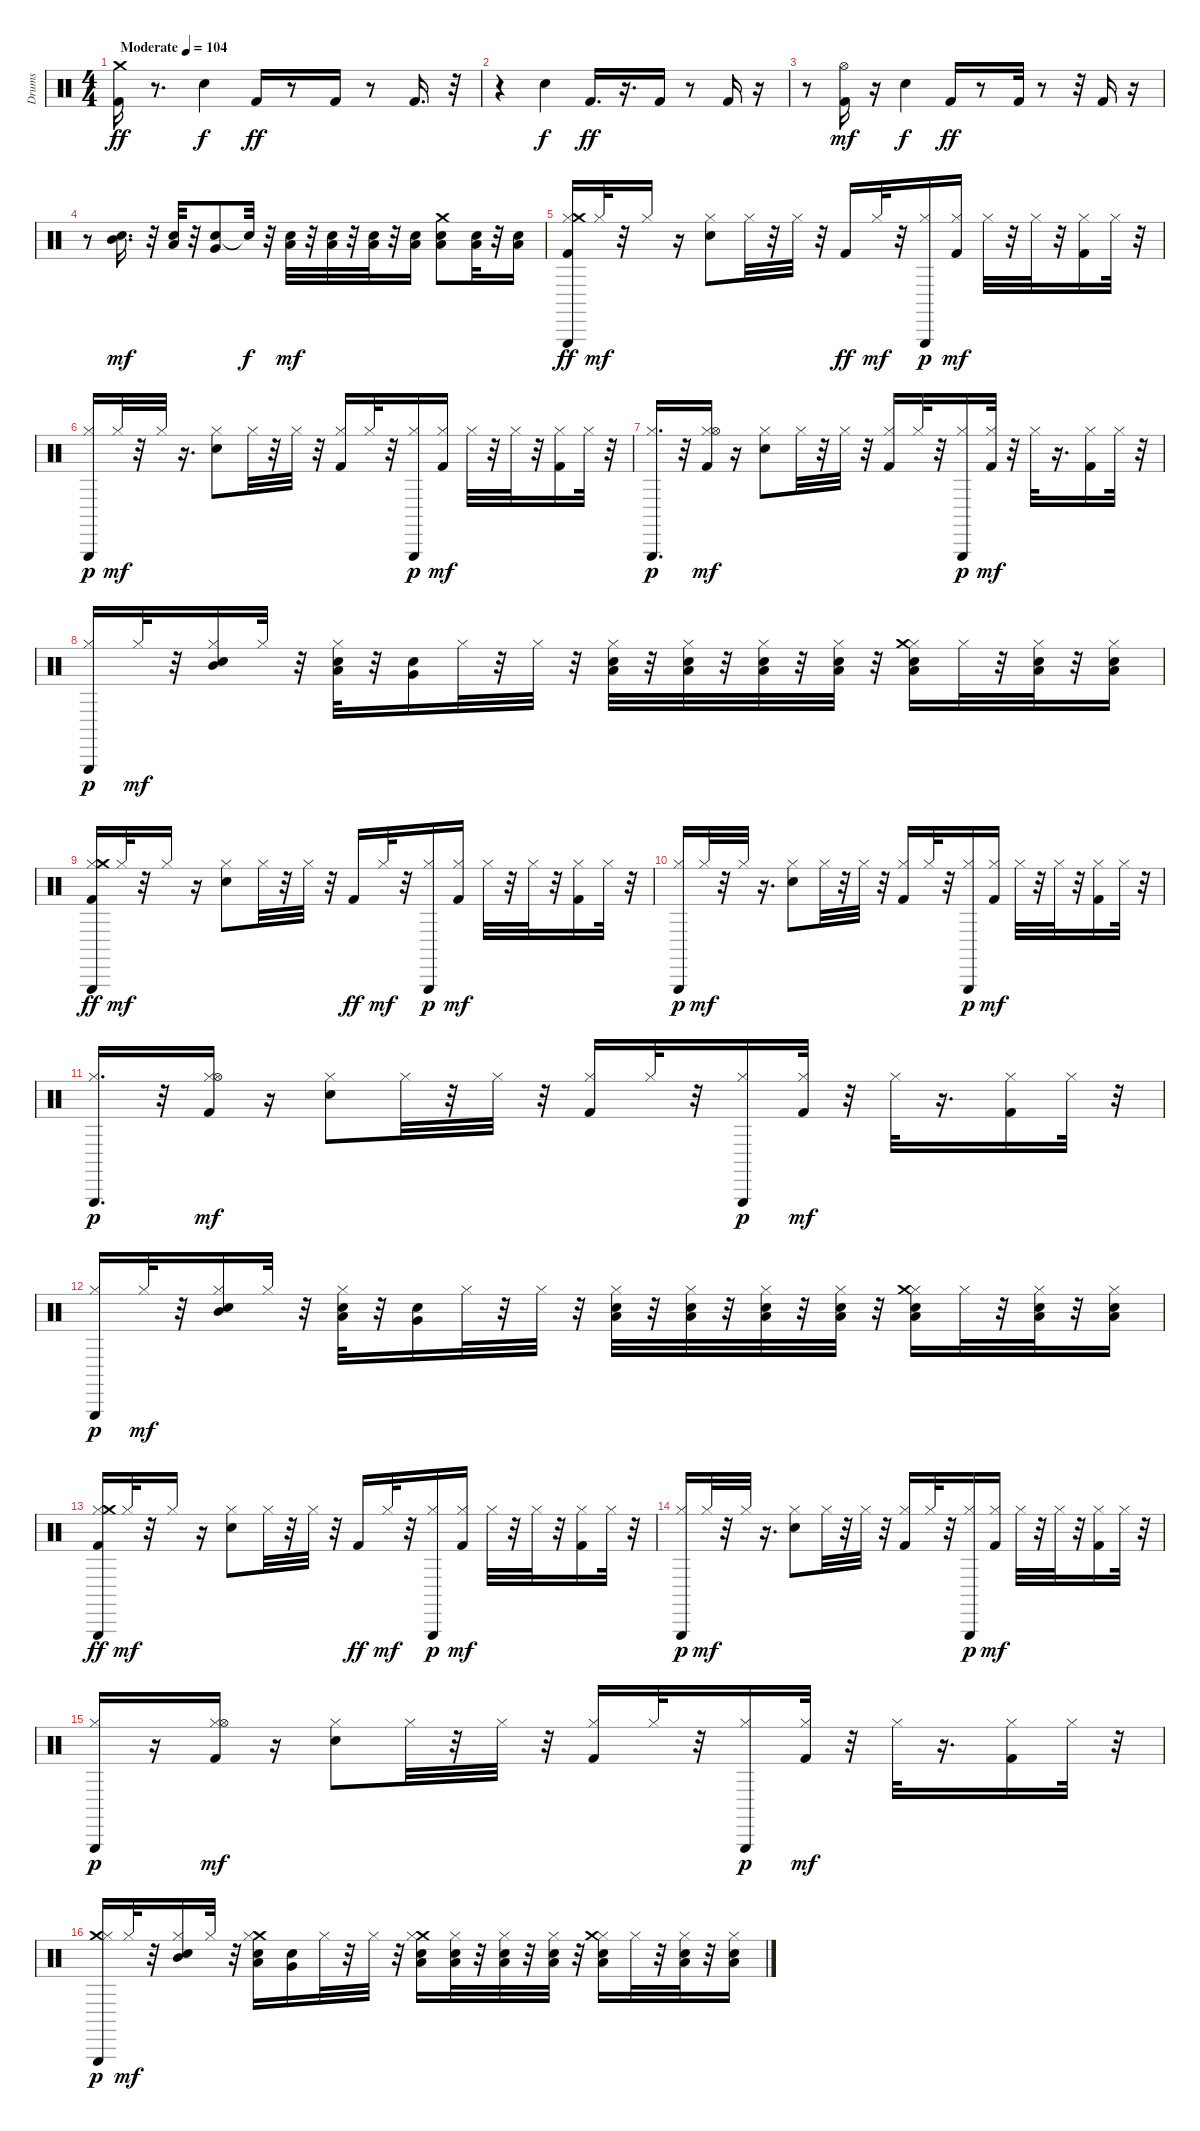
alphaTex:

\track ("Drums" "Drums") {instrument percussion}
\staff {score}
\articulation defaults
\ts (4 4)
\tempo (104 "Moderate")
\clef neutral
\ks c
("Kick (hit) 2" "Crash medium (hit)").16{dy ff} r.8{d} "Snare (hit) 2".4{dy f} "Kick (hit) 2".16{dy ff} r.8 "Kick (hit) 2".16 r.8 "Kick (hit) 2".16{d} r.32 |
r.4 "Snare (hit) 2".4{dy f} "Kick (hit) 2".16{d dy ff} r.16{d} "Kick (hit) 2".16 r.8 "Kick (hit) 2".16 r.16 |
r.8 ("Kick (hit) 2" "Hi-Hat (open)").16{dy mf} r.16 "Snare (hit) 2".4{dy f} "Kick (hit) 2".16{dy ff} r.8 "Kick (hit) 2".32 r.8 r.32 "Kick (hit) 2".16 r.16 |
r.8 ("Snare (hit) 2" "Mid Tom (hit)").16{d dy mf} r.32 ("Snare (hit) 2" "Low Tom (hit)").32 r.32 ("Snare (hit) 2" "Very Low Tom (hit)").8 "Snare (hit)"{t}.32{dy f} r.32 ("Snare (hit) 2" "Low Floor Tom (hit)").32{dy mf} r.32 ("Snare (hit) 2" "Low Floor Tom (hit)").32 r.32 ("Snare (hit) 2" "Low Floor Tom (hit)").32 r.32 ("Snare (hit) 2" "Low Floor Tom (hit)").16 ("Snare (hit) 2" "Low Floor Tom (hit)" "Crash medium (hit)").8 ("Snare (hit) 2" "Low Floor Tom (hit)").32 r.32 ("Snare (hit) 2" "Low Floor Tom (hit)").16 |
("Kick (hit) 2" "Hi-Hat (closed)" "Triangle (hit)" "Crash medium (hit)").16{dy ff} "Hi-Hat (closed)".32{dy mf} r.32 "Hi-Hat (closed)".16 r.16 ("Hi-Hat (closed)" "Snare (hit) 2").8 "Hi-Hat (closed)".32 r.32 "Hi-Hat (closed)".32 r.32 "Kick (hit) 2".16{dy ff} "Hi-Hat (closed)".32{dy mf} r.32 ("Hi-Hat (closed)" "Triangle (hit)").16{dy p} ("Kick (hit) 2" "Hi-Hat (closed)").16{dy mf} "Hi-Hat (closed)".32 r.32 "Hi-Hat (closed)".32 r.32 ("Kick (hit) 2" "Hi-Hat (closed)").16 "Hi-Hat (closed)".32 r.32 |
("Hi-Hat (closed)" "Triangle (hit)").16{dy p} "Hi-Hat (closed)".32{dy mf} r.32 "Hi-Hat (closed)".32 r.16{d} ("Hi-Hat (closed)" "Snare (hit) 2").8 "Hi-Hat (closed)".32 r.32 "Hi-Hat (closed)".32 r.32 ("Kick (hit) 2" "Hi-Hat (closed)").16 "Hi-Hat (closed)".32 r.32 ("Hi-Hat (closed)" "Triangle (hit)").16{dy p} ("Kick (hit) 2" "Hi-Hat (closed)").16{dy mf} "Hi-Hat (closed)".32 r.32 "Hi-Hat (closed)".32 r.32 ("Kick (hit) 2" "Hi-Hat (closed)").16 "Hi-Hat (closed)".32 r.32 |
("Hi-Hat (closed)" "Triangle (hit)").16{d dy p} r.32 ("Kick (hit) 2" "Hi-Hat (closed)" "Hi-Hat (open)").16{dy mf} r.16 ("Hi-Hat (closed)" "Snare (hit) 2").8 "Hi-Hat (closed)".32 r.32 "Hi-Hat (closed)".32 r.32 ("Kick (hit) 2" "Hi-Hat (closed)").16 "Hi-Hat (closed)".32 r.32 ("Hi-Hat (closed)" "Triangle (hit)").16{dy p} ("Kick (hit) 2" "Hi-Hat (closed)").32{dy mf} r.32 "Hi-Hat (closed)".32 r.16{d} ("Kick (hit) 2" "Hi-Hat (closed)").16 "Hi-Hat (closed)".32 r.32 |
("Hi-Hat (closed)" "Triangle (hit)").16{dy p} "Hi-Hat (closed)".32{dy mf} r.32 ("Hi-Hat (closed)" "Snare (hit) 2" "Mid Tom (hit)").16 "Hi-Hat (closed)".32 r.32 ("Hi-Hat (closed)" "Snare (hit) 2" "Low Tom (hit)").32 r.32 ("Snare (hit) 2" "Very Low Tom (hit)").16 "Hi-Hat (closed)".32 r.32 "Hi-Hat (closed)".32 r.32 ("Hi-Hat (closed)" "Snare (hit) 2" "Low Floor Tom (hit)").32 r.32 ("Hi-Hat (closed)" "Snare (hit) 2" "Low Floor Tom (hit)").32 r.32 ("Hi-Hat (closed)" "Snare (hit) 2" "Low Floor Tom (hit)").32 r.32 ("Hi-Hat (closed)" "Snare (hit) 2" "Low Floor Tom (hit)").32 r.32 ("Hi-Hat (closed)" "Snare (hit) 2" "Low Floor Tom (hit)" "Crash medium (hit)").16 "Hi-Hat (closed)".32 r.32 ("Hi-Hat (closed)" "Snare (hit) 2" "Low Floor Tom (hit)").32 r.32 ("Hi-Hat (closed)" "Snare (hit) 2" "Low Floor Tom (hit)").16 |
("Kick (hit) 2" "Hi-Hat (closed)" "Triangle (hit)" "Crash medium (hit)").16{dy ff} "Hi-Hat (closed)".32{dy mf} r.32 "Hi-Hat (closed)".16 r.16 ("Hi-Hat (closed)" "Snare (hit) 2").8 "Hi-Hat (closed)".32 r.32 "Hi-Hat (closed)".32 r.32 "Kick (hit) 2".16{dy ff} "Hi-Hat (closed)".32{dy mf} r.32 ("Hi-Hat (closed)" "Triangle (hit)").16{dy p} ("Kick (hit) 2" "Hi-Hat (closed)").16{dy mf} "Hi-Hat (closed)".32 r.32 "Hi-Hat (closed)".32 r.32 ("Kick (hit) 2" "Hi-Hat (closed)").16 "Hi-Hat (closed)".32 r.32 |
("Hi-Hat (closed)" "Triangle (hit)").16{dy p} "Hi-Hat (closed)".32{dy mf} r.32 "Hi-Hat (closed)".32 r.16{d} ("Hi-Hat (closed)" "Snare (hit) 2").8 "Hi-Hat (closed)".32 r.32 "Hi-Hat (closed)".32 r.32 ("Kick (hit) 2" "Hi-Hat (closed)").16 "Hi-Hat (closed)".32 r.32 ("Hi-Hat (closed)" "Triangle (hit)").16{dy p} ("Kick (hit) 2" "Hi-Hat (closed)").16{dy mf} "Hi-Hat (closed)".32 r.32 "Hi-Hat (closed)".32 r.32 ("Kick (hit) 2" "Hi-Hat (closed)").16 "Hi-Hat (closed)".32 r.32 |
("Hi-Hat (closed)" "Triangle (hit)").16{d dy p} r.32 ("Kick (hit) 2" "Hi-Hat (closed)" "Hi-Hat (open)").16{dy mf} r.16 ("Hi-Hat (closed)" "Snare (hit) 2").8 "Hi-Hat (closed)".32 r.32 "Hi-Hat (closed)".32 r.32 ("Kick (hit) 2" "Hi-Hat (closed)").16 "Hi-Hat (closed)".32 r.32 ("Hi-Hat (closed)" "Triangle (hit)").16{dy p} ("Kick (hit) 2" "Hi-Hat (closed)").32{dy mf} r.32 "Hi-Hat (closed)".32 r.16{d} ("Kick (hit) 2" "Hi-Hat (closed)").16 "Hi-Hat (closed)".32 r.32 |
("Hi-Hat (closed)" "Triangle (hit)").16{dy p} "Hi-Hat (closed)".32{dy mf} r.32 ("Hi-Hat (closed)" "Snare (hit) 2" "Mid Tom (hit)").16 "Hi-Hat (closed)".32 r.32 ("Hi-Hat (closed)" "Snare (hit) 2" "Low Tom (hit)").32 r.32 ("Snare (hit) 2" "Very Low Tom (hit)").16 "Hi-Hat (closed)".32 r.32 "Hi-Hat (closed)".32 r.32 ("Hi-Hat (closed)" "Snare (hit) 2" "Low Floor Tom (hit)").32 r.32 ("Hi-Hat (closed)" "Snare (hit) 2" "Low Floor Tom (hit)").32 r.32 ("Hi-Hat (closed)" "Snare (hit) 2" "Low Floor Tom (hit)").32 r.32 ("Hi-Hat (closed)" "Snare (hit) 2" "Low Floor Tom (hit)").32 r.32 ("Hi-Hat (closed)" "Snare (hit) 2" "Low Floor Tom (hit)" "Crash medium (hit)").16 "Hi-Hat (closed)".32 r.32 ("Hi-Hat (closed)" "Snare (hit) 2" "Low Floor Tom (hit)").32 r.32 ("Hi-Hat (closed)" "Snare (hit) 2" "Low Floor Tom (hit)").16 |
("Kick (hit) 2" "Hi-Hat (closed)" "Triangle (hit)" "Crash medium (hit)").16{dy ff} "Hi-Hat (closed)".32{dy mf} r.32 "Hi-Hat (closed)".16 r.16 ("Hi-Hat (closed)" "Snare (hit) 2").8 "Hi-Hat (closed)".32 r.32 "Hi-Hat (closed)".32 r.32 "Kick (hit) 2".16{dy ff} "Hi-Hat (closed)".32{dy mf} r.32 ("Hi-Hat (closed)" "Triangle (hit)").16{dy p} ("Kick (hit) 2" "Hi-Hat (closed)").16{dy mf} "Hi-Hat (closed)".32 r.32 "Hi-Hat (closed)".32 r.32 ("Kick (hit) 2" "Hi-Hat (closed)").16 "Hi-Hat (closed)".32 r.32 |
("Hi-Hat (closed)" "Triangle (hit)").16{dy p} "Hi-Hat (closed)".32{dy mf} r.32 "Hi-Hat (closed)".32 r.16{d} ("Hi-Hat (closed)" "Snare (hit) 2").8 "Hi-Hat (closed)".32 r.32 "Hi-Hat (closed)".32 r.32 ("Kick (hit) 2" "Hi-Hat (closed)").16 "Hi-Hat (closed)".32 r.32 ("Hi-Hat (closed)" "Triangle (hit)").16{dy p} ("Kick (hit) 2" "Hi-Hat (closed)").16{dy mf} "Hi-Hat (closed)".32 r.32 "Hi-Hat (closed)".32 r.32 ("Kick (hit) 2" "Hi-Hat (closed)").16 "Hi-Hat (closed)".32 r.32 |
("Hi-Hat (closed)" "Triangle (hit)").16{dy p} r.16 ("Kick (hit) 2" "Hi-Hat (closed)" "Hi-Hat (open)").16{dy mf} r.16 ("Hi-Hat (closed)" "Snare (hit) 2").8 "Hi-Hat (closed)".32 r.32 "Hi-Hat (closed)".32 r.32 ("Kick (hit) 2" "Hi-Hat (closed)").16 "Hi-Hat (closed)".32 r.32 ("Hi-Hat (closed)" "Triangle (hit)").16{dy p} ("Kick (hit) 2" "Hi-Hat (closed)").32{dy mf} r.32 "Hi-Hat (closed)".32 r.16{d} ("Kick (hit) 2" "Hi-Hat (closed)").16 "Hi-Hat (closed)".32 r.32 |
("Crash medium (hit)" "Hi-Hat (closed)" "Triangle (hit)").16{dy p} "Hi-Hat (closed)".32{dy mf} r.32 ("Hi-Hat (closed)" "Snare (hit) 2" "Mid Tom (hit)").16 "Hi-Hat (closed)".32 r.32 ("Crash medium (hit)" "Hi-Hat (closed)" "Snare (hit) 2" "Low Tom (hit)").16 ("Snare (hit) 2" "Very Low Tom (hit)").16 "Hi-Hat (closed)".32 r.32 "Hi-Hat (closed)".32 r.32 ("Crash medium (hit)" "Hi-Hat (closed)" "Snare (hit) 2" "Low Floor Tom (hit)").16 ("Hi-Hat (closed)" "Snare (hit) 2" "Low Floor Tom (hit)").32 r.32 ("Hi-Hat (closed)" "Snare (hit) 2" "Low Floor Tom (hit)").32 r.32 ("Hi-Hat (closed)" "Snare (hit) 2" "Low Floor Tom (hit)").32 r.32 ("Hi-Hat (closed)" "Snare (hit) 2" "Low Floor Tom (hit)" "Crash medium (hit)").16 "Hi-Hat (closed)".32 r.32 ("Hi-Hat (closed)" "Snare (hit) 2" "Low Floor Tom (hit)").32 r.32 ("Hi-Hat (closed)" "Snare (hit) 2" "Low Floor Tom (hit)").16
